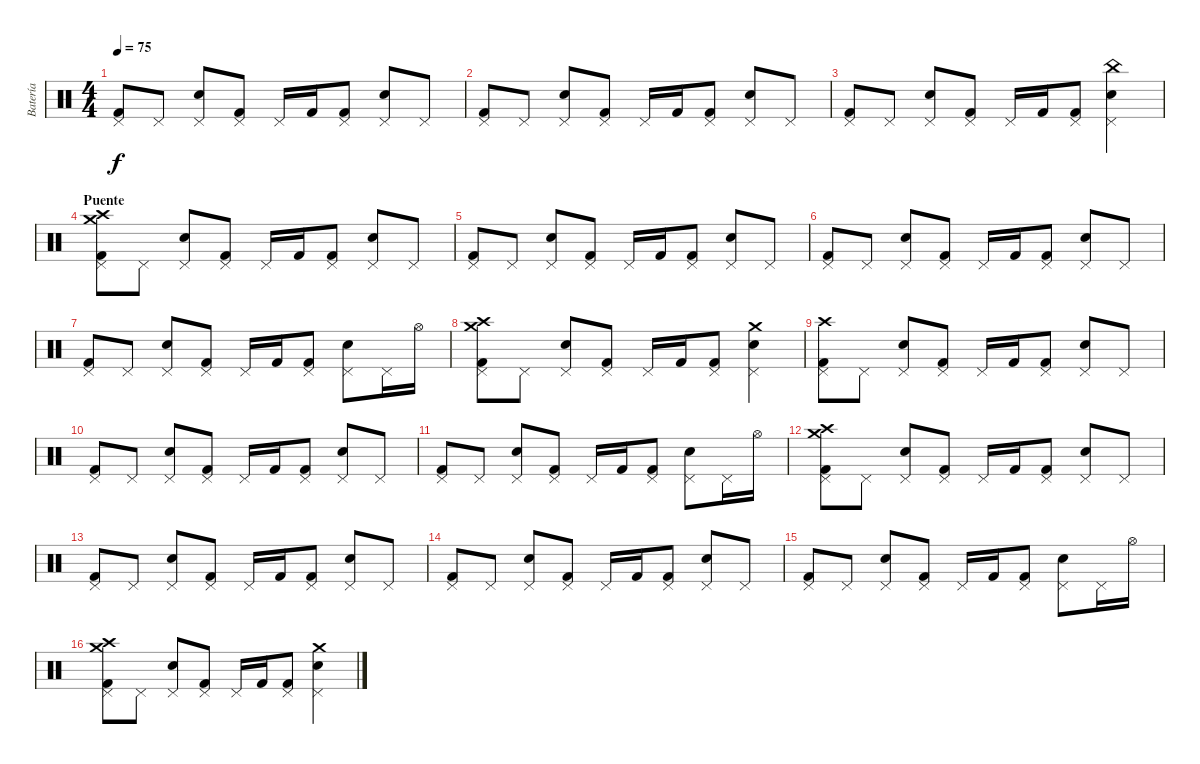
\track ("Batería" "Batería") {instrument percussion}
\staff {score}
\articulation defaults
\ts (4 4)
\tempo 75
\clef neutral
\ks c
("Pedal Hi-Hat (hit)" "Kick (hit) 2").8{dy f} "Pedal Hi-Hat (hit)".8 ("Pedal Hi-Hat (hit)" "Electric Snare (hit)").8 ("Pedal Hi-Hat (hit)" "Kick (hit) 2").8 "Pedal Hi-Hat (hit)".16 "Kick (hit) 2".16 ("Pedal Hi-Hat (hit)" "Kick (hit) 2").8 ("Pedal Hi-Hat (hit)" "Electric Snare (hit)").8 "Pedal Hi-Hat (hit)".8 |
("Pedal Hi-Hat (hit)" "Kick (hit) 2").8 "Pedal Hi-Hat (hit)".8 ("Pedal Hi-Hat (hit)" "Electric Snare (hit)").8 ("Pedal Hi-Hat (hit)" "Kick (hit) 2").8 "Pedal Hi-Hat (hit)".16 "Kick (hit) 2".16 ("Pedal Hi-Hat (hit)" "Kick (hit) 2").8 ("Pedal Hi-Hat (hit)" "Electric Snare (hit)").8 "Pedal Hi-Hat (hit)".8 |
("Pedal Hi-Hat (hit)" "Kick (hit) 2").8 "Pedal Hi-Hat (hit)".8 ("Pedal Hi-Hat (hit)" "Electric Snare (hit)").8 ("Pedal Hi-Hat (hit)" "Kick (hit) 2").8 "Pedal Hi-Hat (hit)".16 "Kick (hit) 2".16 ("Pedal Hi-Hat (hit)" "Kick (hit) 2").8 ("China (hit)" "Pedal Hi-Hat (hit)" "Electric Snare (hit)").4 |
\section ("" "Puente")
("Crash high (hit)" "Crash medium (hit)" "Pedal Hi-Hat (hit)" "Kick (hit) 2").8 "Pedal Hi-Hat (hit)".8 ("Pedal Hi-Hat (hit)" "Electric Snare (hit)").8 ("Pedal Hi-Hat (hit)" "Kick (hit) 2").8 "Pedal Hi-Hat (hit)".16 "Kick (hit) 2".16 ("Pedal Hi-Hat (hit)" "Kick (hit) 2").8 ("Pedal Hi-Hat (hit)" "Electric Snare (hit)").8 "Pedal Hi-Hat (hit)".8 |
("Pedal Hi-Hat (hit)" "Kick (hit) 2").8 "Pedal Hi-Hat (hit)".8 ("Pedal Hi-Hat (hit)" "Electric Snare (hit)").8 ("Pedal Hi-Hat (hit)" "Kick (hit) 2").8 "Pedal Hi-Hat (hit)".16 "Kick (hit) 2".16 ("Pedal Hi-Hat (hit)" "Kick (hit) 2").8 ("Pedal Hi-Hat (hit)" "Electric Snare (hit)").8 "Pedal Hi-Hat (hit)".8 |
("Pedal Hi-Hat (hit)" "Kick (hit) 2").8 "Pedal Hi-Hat (hit)".8 ("Pedal Hi-Hat (hit)" "Electric Snare (hit)").8 ("Pedal Hi-Hat (hit)" "Kick (hit) 2").8 "Pedal Hi-Hat (hit)".16 "Kick (hit) 2".16 ("Pedal Hi-Hat (hit)" "Kick (hit) 2").8 ("Pedal Hi-Hat (hit)" "Electric Snare (hit)").8 "Pedal Hi-Hat (hit)".8 |
("Pedal Hi-Hat (hit)" "Kick (hit) 2").8 "Pedal Hi-Hat (hit)".8 ("Pedal Hi-Hat (hit)" "Electric Snare (hit)").8 ("Pedal Hi-Hat (hit)" "Kick (hit) 2").8 "Pedal Hi-Hat (hit)".16 "Kick (hit) 2".16 ("Pedal Hi-Hat (hit)" "Kick (hit) 2").8 ("Pedal Hi-Hat (hit)" "Electric Snare (hit)").8 "Pedal Hi-Hat (hit)".16 "Hi-Hat (open)".16 |
("Crash high (hit)" "Crash medium (hit)" "Pedal Hi-Hat (hit)" "Kick (hit) 2").8 "Pedal Hi-Hat (hit)".8 ("Pedal Hi-Hat (hit)" "Electric Snare (hit)").8 ("Pedal Hi-Hat (hit)" "Kick (hit) 2").8 "Pedal Hi-Hat (hit)".16 "Kick (hit) 2".16 ("Pedal Hi-Hat (hit)" "Kick (hit) 2").8 ("Crash medium (hit)" "Pedal Hi-Hat (hit)" "Electric Snare (hit)").4 |
("Crash high (hit)" "Pedal Hi-Hat (hit)" "Kick (hit) 2").8 "Pedal Hi-Hat (hit)".8 ("Pedal Hi-Hat (hit)" "Electric Snare (hit)").8 ("Pedal Hi-Hat (hit)" "Kick (hit) 2").8 "Pedal Hi-Hat (hit)".16 "Kick (hit) 2".16 ("Pedal Hi-Hat (hit)" "Kick (hit) 2").8 ("Pedal Hi-Hat (hit)" "Electric Snare (hit)").8 "Pedal Hi-Hat (hit)".8 |
("Pedal Hi-Hat (hit)" "Kick (hit) 2").8 "Pedal Hi-Hat (hit)".8 ("Pedal Hi-Hat (hit)" "Electric Snare (hit)").8 ("Pedal Hi-Hat (hit)" "Kick (hit) 2").8 "Pedal Hi-Hat (hit)".16 "Kick (hit) 2".16 ("Pedal Hi-Hat (hit)" "Kick (hit) 2").8 ("Pedal Hi-Hat (hit)" "Electric Snare (hit)").8 "Pedal Hi-Hat (hit)".8 |
("Pedal Hi-Hat (hit)" "Kick (hit) 2").8 "Pedal Hi-Hat (hit)".8 ("Pedal Hi-Hat (hit)" "Electric Snare (hit)").8 ("Pedal Hi-Hat (hit)" "Kick (hit) 2").8 "Pedal Hi-Hat (hit)".16 "Kick (hit) 2".16 ("Pedal Hi-Hat (hit)" "Kick (hit) 2").8 ("Pedal Hi-Hat (hit)" "Electric Snare (hit)").8 "Pedal Hi-Hat (hit)".16 "Hi-Hat (open)".16 |
("Crash high (hit)" "Crash medium (hit)" "Pedal Hi-Hat (hit)" "Kick (hit) 2").8 "Pedal Hi-Hat (hit)".8 ("Pedal Hi-Hat (hit)" "Electric Snare (hit)").8 ("Pedal Hi-Hat (hit)" "Kick (hit) 2").8 "Pedal Hi-Hat (hit)".16 "Kick (hit) 2".16 ("Pedal Hi-Hat (hit)" "Kick (hit) 2").8 ("Pedal Hi-Hat (hit)" "Electric Snare (hit)").8 "Pedal Hi-Hat (hit)".8 |
("Pedal Hi-Hat (hit)" "Kick (hit) 2").8 "Pedal Hi-Hat (hit)".8 ("Pedal Hi-Hat (hit)" "Electric Snare (hit)").8 ("Pedal Hi-Hat (hit)" "Kick (hit) 2").8 "Pedal Hi-Hat (hit)".16 "Kick (hit) 2".16 ("Pedal Hi-Hat (hit)" "Kick (hit) 2").8 ("Pedal Hi-Hat (hit)" "Electric Snare (hit)").8 "Pedal Hi-Hat (hit)".8 |
("Pedal Hi-Hat (hit)" "Kick (hit) 2").8 "Pedal Hi-Hat (hit)".8 ("Pedal Hi-Hat (hit)" "Electric Snare (hit)").8 ("Pedal Hi-Hat (hit)" "Kick (hit) 2").8 "Pedal Hi-Hat (hit)".16 "Kick (hit) 2".16 ("Pedal Hi-Hat (hit)" "Kick (hit) 2").8 ("Pedal Hi-Hat (hit)" "Electric Snare (hit)").8 "Pedal Hi-Hat (hit)".8 |
("Pedal Hi-Hat (hit)" "Kick (hit) 2").8 "Pedal Hi-Hat (hit)".8 ("Pedal Hi-Hat (hit)" "Electric Snare (hit)").8 ("Pedal Hi-Hat (hit)" "Kick (hit) 2").8 "Pedal Hi-Hat (hit)".16 "Kick (hit) 2".16 ("Pedal Hi-Hat (hit)" "Kick (hit) 2").8 ("Pedal Hi-Hat (hit)" "Electric Snare (hit)").8 "Pedal Hi-Hat (hit)".16 "Hi-Hat (open)".16 |
("Crash high (hit)" "Crash medium (hit)" "Pedal Hi-Hat (hit)" "Kick (hit) 2").8 "Pedal Hi-Hat (hit)".8 ("Pedal Hi-Hat (hit)" "Electric Snare (hit)").8 ("Pedal Hi-Hat (hit)" "Kick (hit) 2").8 "Pedal Hi-Hat (hit)".16 "Kick (hit) 2".16 ("Pedal Hi-Hat (hit)" "Kick (hit) 2").8 ("Crash medium (hit)" "Pedal Hi-Hat (hit)" "Electric Snare (hit)").4
